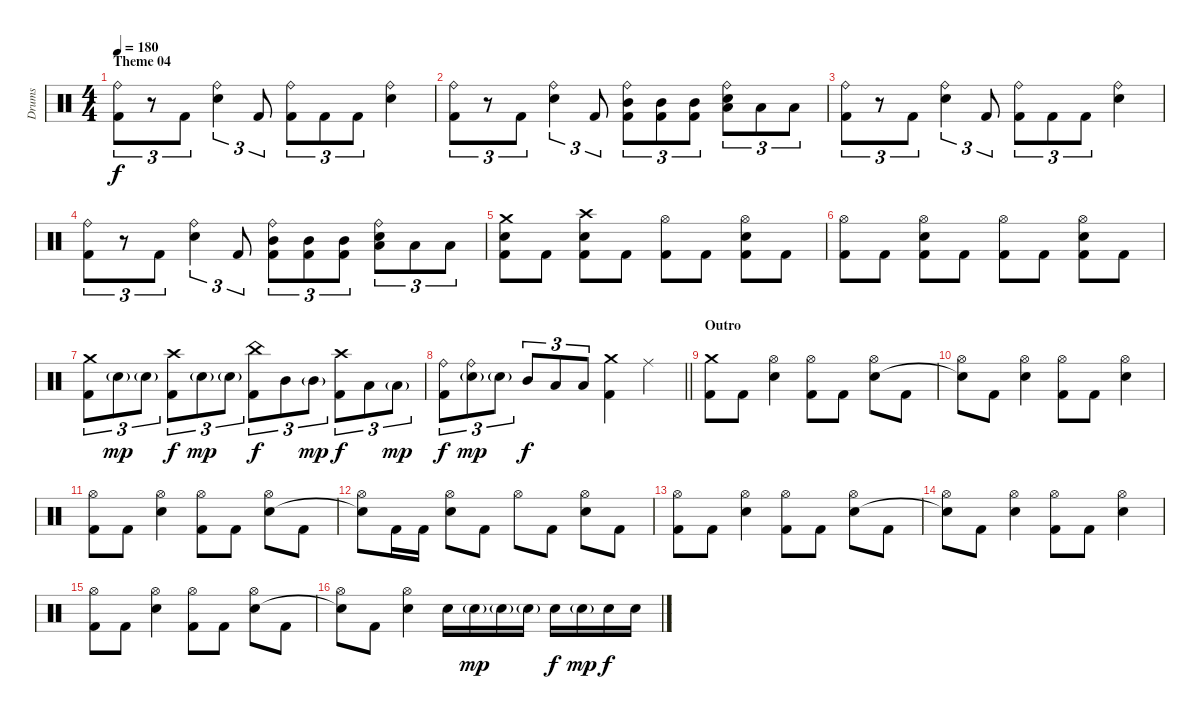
\track ("Drums" "Drums") {instrument percussion}
\staff {score}
\articulation defaults
\ts (4 4)
\section ("" "Theme 04")
\tempo 180
\clef neutral
\ks c
("Ride (bell)" "Kick (hit) 2").8{tu (3 2) dy f} r.8{tu (3 2)} "Kick (hit) 2".8{tu (3 2)} ("Ride (bell)" "Snare (hit) 2").4{tu (3 2)} "Kick (hit) 2".8{tu (3 2)} ("Ride (bell)" "Kick (hit) 2").8{tu (3 2)} "Kick (hit) 2".8{tu (3 2)} "Kick (hit) 2".8{tu (3 2)} ("Ride (bell)" "Snare (hit) 2").4 |
("Ride (bell)" "Kick (hit) 2").8{tu (3 2)} r.8{tu (3 2)} "Kick (hit) 2".8{tu (3 2)} ("Ride (bell)" "Snare (hit) 2").4{tu (3 2)} "Kick (hit) 2".8{tu (3 2)} ("Ride (bell)" "Mid Tom (hit)" "Kick (hit) 2").8{tu (3 2)} ("Mid Tom (hit)" "Kick (hit) 2").8{tu (3 2)} ("Mid Tom (hit)" "Kick (hit) 2").8{tu (3 2)} ("Ride (bell)" "Low Tom (hit)" "Snare (hit) 2").8{tu (3 2)} "Low Tom (hit)".8{tu (3 2)} "Low Tom (hit)".8{tu (3 2)} |
("Ride (bell)" "Kick (hit) 2").8{tu (3 2)} r.8{tu (3 2)} "Kick (hit) 2".8{tu (3 2)} ("Ride (bell)" "Snare (hit) 2").4{tu (3 2)} "Kick (hit) 2".8{tu (3 2)} ("Ride (bell)" "Kick (hit) 2").8{tu (3 2)} "Kick (hit) 2".8{tu (3 2)} "Kick (hit) 2".8{tu (3 2)} ("Ride (bell)" "Snare (hit) 2").4 |
("Ride (bell)" "Kick (hit) 2").8{tu (3 2)} r.8{tu (3 2)} "Kick (hit) 2".8{tu (3 2)} ("Ride (bell)" "Snare (hit) 2").4{tu (3 2)} "Kick (hit) 2".8{tu (3 2)} ("Ride (bell)" "Mid Tom (hit)" "Kick (hit) 2").8{tu (3 2)} ("Mid Tom (hit)" "Kick (hit) 2").8{tu (3 2)} ("Mid Tom (hit)" "Kick (hit) 2").8{tu (3 2)} ("Ride (bell)" "Low Tom (hit)" "Snare (hit) 2").8{tu (3 2)} "Low Tom (hit)".8{tu (3 2)} "Low Tom (hit)".8{tu (3 2)} |
("Crash medium (hit)" "Snare (hit) 2" "Kick (hit) 2").8 "Kick (hit) 2".8 ("Crash high (hit)" "Snare (hit) 2" "Kick (hit) 2").8 "Kick (hit) 2".8 ("Hi-Hat (open)" "Kick (hit) 2").8 "Kick (hit) 2".8 ("Hi-Hat (open)" "Snare (hit) 2" "Kick (hit) 2").8 "Kick (hit) 2".8 |
("Hi-Hat (open)" "Kick (hit) 2").8 "Kick (hit) 2".8 ("Hi-Hat (open)" "Snare (hit) 2" "Kick (hit) 2").8 "Kick (hit) 2".8 ("Hi-Hat (open)" "Kick (hit) 2").8 "Kick (hit) 2".8 ("Hi-Hat (open)" "Snare (hit) 2" "Kick (hit) 2").8 "Kick (hit) 2".8 |
("Crash medium (hit)" "Kick (hit) 2").8{tu (3 2)} "Snare (hit) 2"{g}.8{tu (3 2) dy mp} "Snare (hit) 2"{g}.8{tu (3 2)} ("Crash high (hit)" "Kick (hit) 2").8{tu (3 2) dy f} "Snare (hit) 2"{g}.8{tu (3 2) dy mp} "Snare (hit) 2"{g}.8{tu (3 2)} ("China (hit)" "Kick (hit) 2").8{tu (3 2) dy f} "Mid Tom (hit)".8{tu (3 2)} "Mid Tom (hit)"{g}.8{tu (3 2) dy mp} ("Crash high (hit)" "Kick (hit) 2").8{tu (3 2) dy f} "Low Tom (hit)".8{tu (3 2)} "Low Tom (hit)"{g}.8{tu (3 2) dy mp} |
\barLineRight lightlight
("Ride (bell)" "Kick (hit) 2").8{tu (3 2) dy f} ("Ride (bell)" "Snare (hit) 2"{g}).8{tu (3 2) dy mp} "Snare (hit) 2"{g}.8{tu (3 2)} "Mid Tom (hit)".8{tu (3 2) dy f} "Low Tom (hit)".8{tu (3 2)} "Low Tom (hit)".8{tu (3 2)} ("Crash medium (hit)" "Kick (hit) 2").4 "Ride (middle)".4 |
\section ("" "Outro")
("Crash medium (hit)" "Kick (hit) 2").8 "Kick (hit) 2".8 ("Hi-Hat (open)" "Snare (hit) 2").4 ("Hi-Hat (open)" "Kick (hit) 2").8 "Kick (hit) 2".8 ("Hi-Hat (open)" "Snare (hit) 2").8 "Kick (hit) 2".8 |
("Hi-Hat (open)" "Snare (hit)"{t}).8 "Kick (hit) 2".8 ("Hi-Hat (open)" "Snare (hit) 2").4 ("Hi-Hat (open)" "Kick (hit) 2").8 "Kick (hit) 2".8 ("Hi-Hat (open)" "Snare (hit) 2").4 |
("Hi-Hat (open)" "Kick (hit) 2").8 "Kick (hit) 2".8 ("Hi-Hat (open)" "Snare (hit) 2").4 ("Hi-Hat (open)" "Kick (hit) 2").8 "Kick (hit) 2".8 ("Hi-Hat (open)" "Snare (hit) 2").8 "Kick (hit) 2".8 |
("Hi-Hat (open)" "Snare (hit)"{t}).8 "Kick (hit) 2".16 "Kick (hit) 2".16 ("Hi-Hat (open)" "Snare (hit) 2").8 "Kick (hit) 2".8 "Hi-Hat (open)".8 "Kick (hit) 2".8 ("Hi-Hat (open)" "Snare (hit) 2").8 "Kick (hit) 2".8 |
("Hi-Hat (open)" "Kick (hit) 2").8 "Kick (hit) 2".8 ("Hi-Hat (open)" "Snare (hit) 2").4 ("Hi-Hat (open)" "Kick (hit) 2").8 "Kick (hit) 2".8 ("Hi-Hat (open)" "Snare (hit) 2").8 "Kick (hit) 2".8 |
("Hi-Hat (open)" "Snare (hit)"{t}).8 "Kick (hit) 2".8 ("Hi-Hat (open)" "Snare (hit) 2").4 ("Hi-Hat (open)" "Kick (hit) 2").8 "Kick (hit) 2".8 ("Hi-Hat (open)" "Snare (hit) 2").4 |
("Hi-Hat (open)" "Kick (hit) 2").8 "Kick (hit) 2".8 ("Hi-Hat (open)" "Snare (hit) 2").4 ("Hi-Hat (open)" "Kick (hit) 2").8 "Kick (hit) 2".8 ("Hi-Hat (open)" "Snare (hit) 2").8 "Kick (hit) 2".8 |
("Hi-Hat (open)" "Snare (hit)"{t}).8 "Kick (hit) 2".8 ("Hi-Hat (open)" "Snare (hit) 2").4 "Snare (hit) 2".16 "Snare (hit) 2"{g}.16{dy mp} "Snare (hit) 2"{g}.16 "Snare (hit) 2"{g}.16 "Snare (hit) 2".16{dy f} "Snare (hit) 2"{g}.16{dy mp} "Snare (hit) 2".16{dy f} "Snare (hit) 2".16
